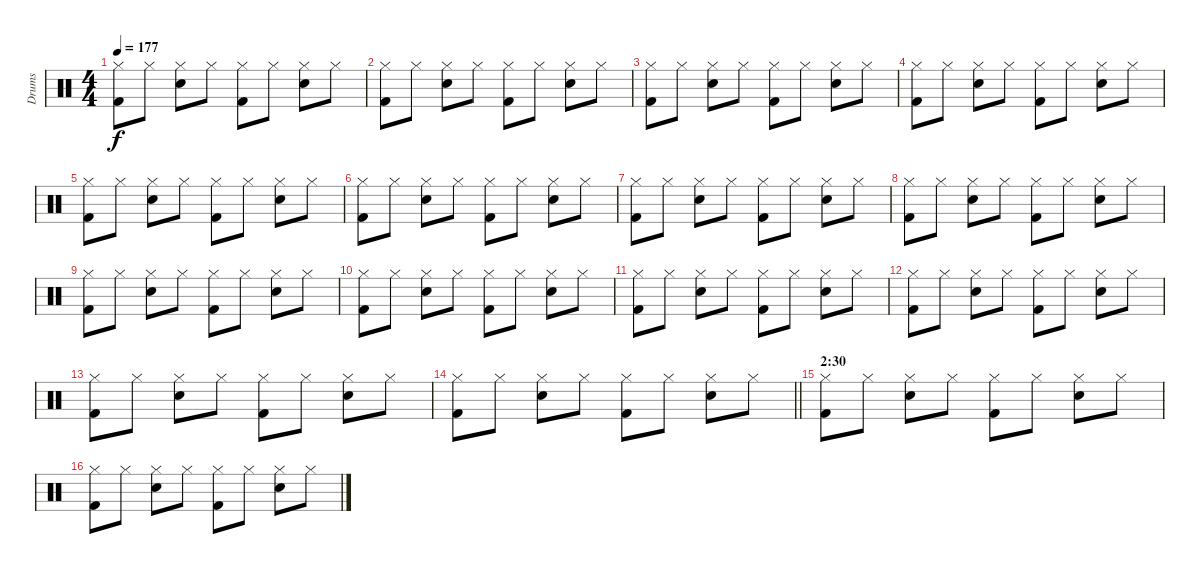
\track ("Drums" "Drums") {instrument percussion}
\staff {score}
\articulation defaults
\ts (4 4)
\tempo 177
\clef neutral
\ks c
("Hi-Hat (closed)" "Kick (hit) 2").8{dy f} "Hi-Hat (closed)".8 ("Hi-Hat (closed)" "Snare (hit) 2").8 "Hi-Hat (closed)".8 ("Hi-Hat (closed)" "Kick (hit) 2").8 "Hi-Hat (closed)".8 ("Hi-Hat (closed)" "Snare (hit) 2").8 "Hi-Hat (closed)".8 |
("Hi-Hat (closed)" "Kick (hit) 2").8 "Hi-Hat (closed)".8 ("Hi-Hat (closed)" "Snare (hit) 2").8 "Hi-Hat (closed)".8 ("Hi-Hat (closed)" "Kick (hit) 2").8 "Hi-Hat (closed)".8 ("Hi-Hat (closed)" "Snare (hit) 2").8 "Hi-Hat (closed)".8 |
("Hi-Hat (closed)" "Kick (hit) 2").8 "Hi-Hat (closed)".8 ("Hi-Hat (closed)" "Snare (hit) 2").8 "Hi-Hat (closed)".8 ("Hi-Hat (closed)" "Kick (hit) 2").8 "Hi-Hat (closed)".8 ("Hi-Hat (closed)" "Snare (hit) 2").8 "Hi-Hat (closed)".8 |
("Hi-Hat (closed)" "Kick (hit) 2").8 "Hi-Hat (closed)".8 ("Hi-Hat (closed)" "Snare (hit) 2").8 "Hi-Hat (closed)".8 ("Hi-Hat (closed)" "Kick (hit) 2").8 "Hi-Hat (closed)".8 ("Hi-Hat (closed)" "Snare (hit) 2").8 "Hi-Hat (closed)".8 |
("Hi-Hat (closed)" "Kick (hit) 2").8 "Hi-Hat (closed)".8 ("Hi-Hat (closed)" "Snare (hit) 2").8 "Hi-Hat (closed)".8 ("Hi-Hat (closed)" "Kick (hit) 2").8 "Hi-Hat (closed)".8 ("Hi-Hat (closed)" "Snare (hit) 2").8 "Hi-Hat (closed)".8 |
("Hi-Hat (closed)" "Kick (hit) 2").8 "Hi-Hat (closed)".8 ("Hi-Hat (closed)" "Snare (hit) 2").8 "Hi-Hat (closed)".8 ("Hi-Hat (closed)" "Kick (hit) 2").8 "Hi-Hat (closed)".8 ("Hi-Hat (closed)" "Snare (hit) 2").8 "Hi-Hat (closed)".8 |
("Hi-Hat (closed)" "Kick (hit) 2").8 "Hi-Hat (closed)".8 ("Hi-Hat (closed)" "Snare (hit) 2").8 "Hi-Hat (closed)".8 ("Hi-Hat (closed)" "Kick (hit) 2").8 "Hi-Hat (closed)".8 ("Hi-Hat (closed)" "Snare (hit) 2").8 "Hi-Hat (closed)".8 |
("Hi-Hat (closed)" "Kick (hit) 2").8 "Hi-Hat (closed)".8 ("Hi-Hat (closed)" "Snare (hit) 2").8 "Hi-Hat (closed)".8 ("Hi-Hat (closed)" "Kick (hit) 2").8 "Hi-Hat (closed)".8 ("Hi-Hat (closed)" "Snare (hit) 2").8 "Hi-Hat (closed)".8 |
("Hi-Hat (closed)" "Kick (hit) 2").8 "Hi-Hat (closed)".8 ("Hi-Hat (closed)" "Snare (hit) 2").8 "Hi-Hat (closed)".8 ("Hi-Hat (closed)" "Kick (hit) 2").8 "Hi-Hat (closed)".8 ("Hi-Hat (closed)" "Snare (hit) 2").8 "Hi-Hat (closed)".8 |
("Hi-Hat (closed)" "Kick (hit) 2").8 "Hi-Hat (closed)".8 ("Hi-Hat (closed)" "Snare (hit) 2").8 "Hi-Hat (closed)".8 ("Hi-Hat (closed)" "Kick (hit) 2").8 "Hi-Hat (closed)".8 ("Hi-Hat (closed)" "Snare (hit) 2").8 "Hi-Hat (closed)".8 |
("Hi-Hat (closed)" "Kick (hit) 2").8 "Hi-Hat (closed)".8 ("Hi-Hat (closed)" "Snare (hit) 2").8 "Hi-Hat (closed)".8 ("Hi-Hat (closed)" "Kick (hit) 2").8 "Hi-Hat (closed)".8 ("Hi-Hat (closed)" "Snare (hit) 2").8 "Hi-Hat (closed)".8 |
("Hi-Hat (closed)" "Kick (hit) 2").8 "Hi-Hat (closed)".8 ("Hi-Hat (closed)" "Snare (hit) 2").8 "Hi-Hat (closed)".8 ("Hi-Hat (closed)" "Kick (hit) 2").8 "Hi-Hat (closed)".8 ("Hi-Hat (closed)" "Snare (hit) 2").8 "Hi-Hat (closed)".8 |
("Hi-Hat (closed)" "Kick (hit) 2").8 "Hi-Hat (closed)".8 ("Hi-Hat (closed)" "Snare (hit) 2").8 "Hi-Hat (closed)".8 ("Hi-Hat (closed)" "Kick (hit) 2").8 "Hi-Hat (closed)".8 ("Hi-Hat (closed)" "Snare (hit) 2").8 "Hi-Hat (closed)".8 |
\barLineRight lightlight
("Hi-Hat (closed)" "Kick (hit) 2").8 "Hi-Hat (closed)".8 ("Hi-Hat (closed)" "Snare (hit) 2").8 "Hi-Hat (closed)".8 ("Hi-Hat (closed)" "Kick (hit) 2").8 "Hi-Hat (closed)".8 ("Hi-Hat (closed)" "Snare (hit) 2").8 "Hi-Hat (closed)".8 |
\section ("" "2:30")
("Hi-Hat (closed)" "Kick (hit) 2").8 "Hi-Hat (closed)".8 ("Hi-Hat (closed)" "Snare (hit) 2").8 "Hi-Hat (closed)".8 ("Hi-Hat (closed)" "Kick (hit) 2").8 "Hi-Hat (closed)".8 ("Hi-Hat (closed)" "Snare (hit) 2").8 "Hi-Hat (closed)".8 |
("Hi-Hat (closed)" "Kick (hit) 2").8 "Hi-Hat (closed)".8 ("Hi-Hat (closed)" "Snare (hit) 2").8 "Hi-Hat (closed)".8 ("Hi-Hat (closed)" "Kick (hit) 2").8 "Hi-Hat (closed)".8 ("Hi-Hat (closed)" "Snare (hit) 2").8 "Hi-Hat (closed)".8
